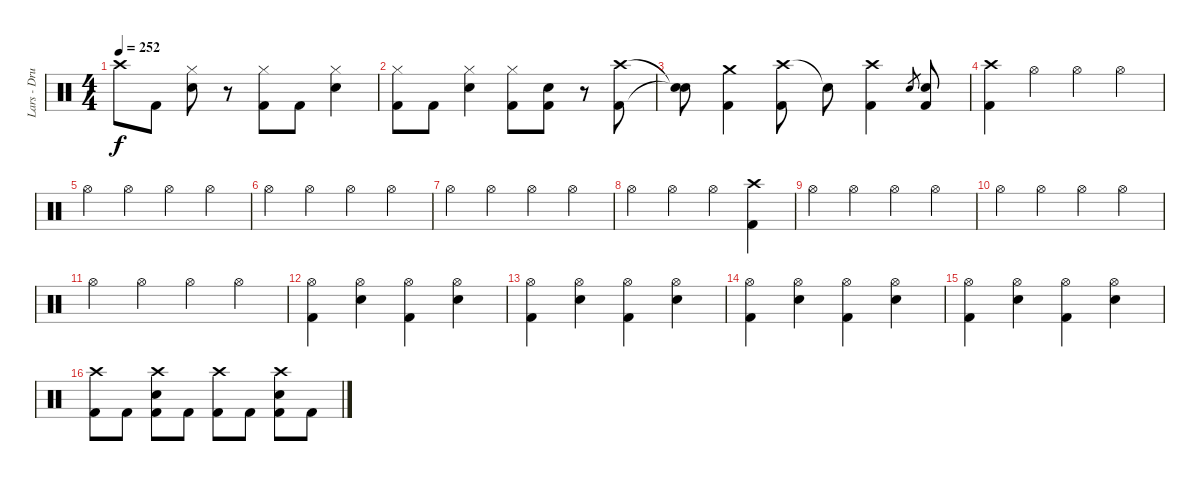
\track ("Lars - Drums" "Lars - Dru") {instrument percussion}
\staff {score}
\articulation defaults
\ts (4 4)
\tempo 252
\clef neutral
\ks c "Crash high (hit)".8{dy f} "Kick (hit) 2".8
("Hi-Hat (closed)" "Electric Snare (hit)").8 r.8 ("Hi-Hat (closed)" "Kick (hit) 2").8 "Kick (hit) 2".8 ("Hi-Hat (closed)" "Electric Snare (hit)").4 |
("Hi-Hat (closed)" "Kick (hit) 2").8 "Kick (hit) 2".8 ("Hi-Hat (closed)" "Electric Snare (hit)").4 ("Hi-Hat (closed)" "Kick (hit) 2").8 ("Electric Snare (hit)" "Kick (hit) 2").8 r.8 ("Crash high (hit)" "Kick (hit) 2").8 |
("Snare (hit)"{t} "Snare (hit)"{t}).8 ("Crash medium (hit)" "Kick (hit) 2").4 ("Crash high (hit)" "Kick (hit) 2").8 "Snare (hit)"{t}.8 ("Crash high (hit)" "Kick (hit) 2").4 "Electric Snare (hit)".8{gr} ("Electric Snare (hit)" "Kick (hit) 2").8 |
("Crash high (hit)" "Kick (hit) 2").4 "Hi-Hat (open)".4 "Hi-Hat (open)".4 "Hi-Hat (open)".4 |
"Hi-Hat (open)".4 "Hi-Hat (open)".4 "Hi-Hat (open)".4 "Hi-Hat (open)".4 |
"Hi-Hat (open)".4 "Hi-Hat (open)".4 "Hi-Hat (open)".4 "Hi-Hat (open)".4 |
"Hi-Hat (open)".4 "Hi-Hat (open)".4 "Hi-Hat (open)".4 "Hi-Hat (open)".4 |
"Hi-Hat (open)".4 "Hi-Hat (open)".4 "Hi-Hat (open)".4 ("Crash high (hit)" "Kick (hit) 2").4 |
"Hi-Hat (open)".4 "Hi-Hat (open)".4 "Hi-Hat (open)".4 "Hi-Hat (open)".4 |
"Hi-Hat (open)".4 "Hi-Hat (open)".4 "Hi-Hat (open)".4 "Hi-Hat (open)".4 |
"Hi-Hat (open)".4 "Hi-Hat (open)".4 "Hi-Hat (open)".4 "Hi-Hat (open)".4 |
("Hi-Hat (open)" "Kick (hit) 2").4 ("Hi-Hat (open)" "Electric Snare (hit)").4 ("Hi-Hat (open)" "Kick (hit) 2").4 ("Hi-Hat (open)" "Electric Snare (hit)").4 |
("Hi-Hat (open)" "Kick (hit) 2").4 ("Hi-Hat (open)" "Electric Snare (hit)").4 ("Hi-Hat (open)" "Kick (hit) 2").4 ("Hi-Hat (open)" "Electric Snare (hit)").4 |
("Hi-Hat (open)" "Kick (hit) 2").4 ("Hi-Hat (open)" "Electric Snare (hit)").4 ("Hi-Hat (open)" "Kick (hit) 2").4 ("Hi-Hat (open)" "Electric Snare (hit)").4 |
("Hi-Hat (open)" "Kick (hit) 2").4 ("Hi-Hat (open)" "Electric Snare (hit)").4 ("Hi-Hat (open)" "Kick (hit) 2").4 ("Hi-Hat (open)" "Electric Snare (hit)").4 |
("Crash high (hit)" "Kick (hit) 2").8 "Kick (hit) 2".8 ("Crash high (hit)" "Electric Snare (hit)" "Kick (hit) 2").8 "Kick (hit) 2".8 ("Crash high (hit)" "Kick (hit) 2").8 "Kick (hit) 2".8 ("Crash high (hit)" "Electric Snare (hit)" "Kick (hit) 2").8 "Kick (hit) 2".8
